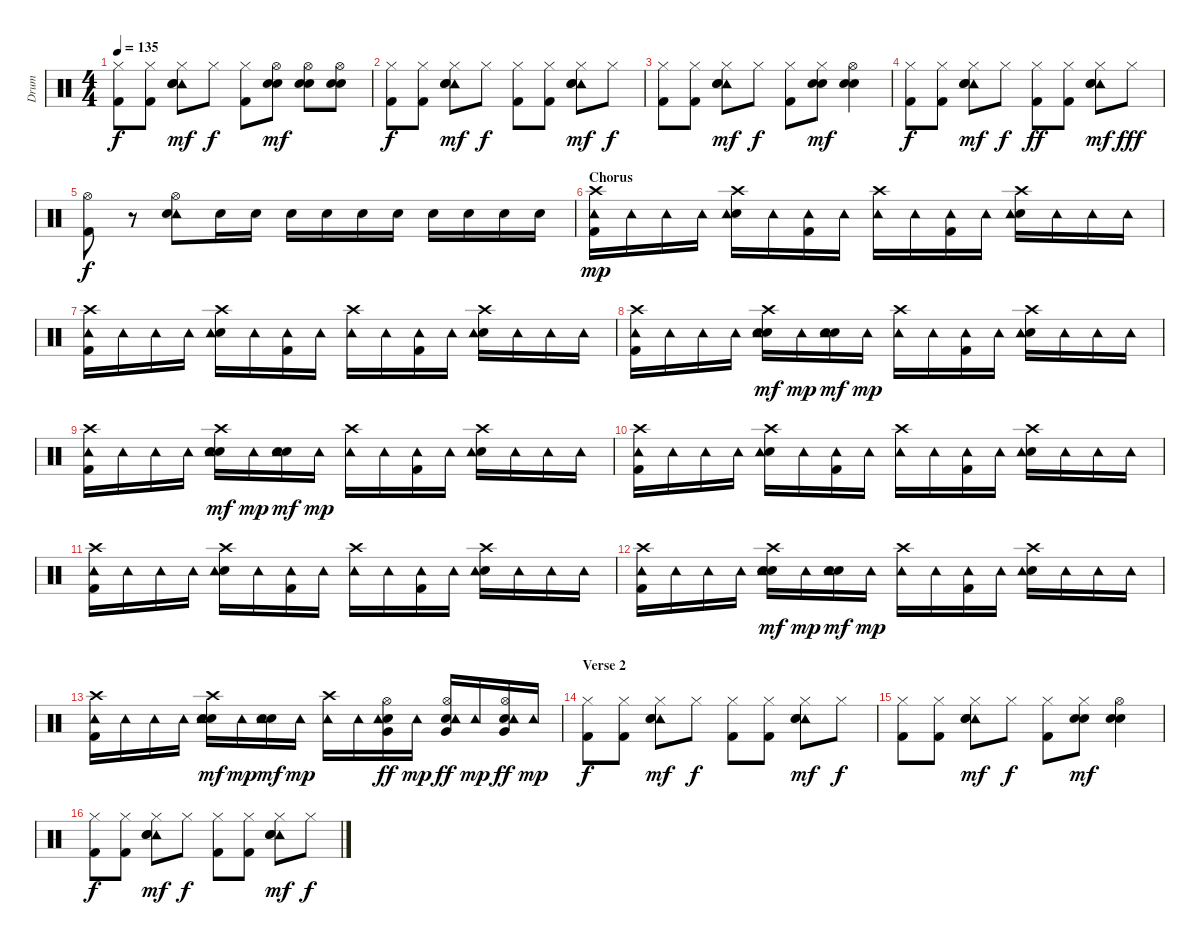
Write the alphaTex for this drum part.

\track ("Drum" "Drum") {instrument percussion}
\staff {score}
\articulation defaults
\ts (4 4)
\tempo 135
\clef neutral
\ks c
("Hi-Hat (closed)" "Kick (hit) 2").8{dy f} ("Hi-Hat (closed)" "Kick (hit) 2").8 ("Hi-Hat (closed)" "Tambourine (hit)" "Electric Snare (hit)" "Hand Clap (hit)").8{dy mf} "Hi-Hat (closed)".8{dy f} ("Hi-Hat (closed)" "Kick (hit) 2").8 ("Hi-Hat (open)" "Electric Snare (hit)" "Hand Clap (hit)").8{dy mf} ("Hi-Hat (open)" "Electric Snare (hit)" "Hand Clap (hit)").8 ("Hi-Hat (open)" "Electric Snare (hit)" "Hand Clap (hit)").8 |
("Hi-Hat (closed)" "Kick (hit) 2").8{dy f} ("Hi-Hat (closed)" "Kick (hit) 2").8 ("Hi-Hat (closed)" "Tambourine (hit)" "Electric Snare (hit)" "Hand Clap (hit)").8{dy mf} "Hi-Hat (closed)".8{dy f} ("Hi-Hat (closed)" "Kick (hit) 2").8 ("Hi-Hat (closed)" "Kick (hit) 2").8 ("Hi-Hat (closed)" "Tambourine (hit)" "Electric Snare (hit)" "Hand Clap (hit)").8{dy mf} "Hi-Hat (closed)".8{dy f} |
("Hi-Hat (closed)" "Kick (hit) 2").8 ("Hi-Hat (closed)" "Kick (hit) 2").8 ("Hi-Hat (closed)" "Tambourine (hit)" "Electric Snare (hit)" "Hand Clap (hit)").8{dy mf} "Hi-Hat (closed)".8{dy f} ("Hi-Hat (closed)" "Kick (hit) 2").8 ("Hi-Hat (closed)" "Electric Snare (hit)" "Hand Clap (hit)").8{dy mf} ("Hi-Hat (open)" "Electric Snare (hit)" "Hand Clap (hit)").4 |
("Hi-Hat (closed)" "Kick (hit) 2").8{dy f} ("Hi-Hat (closed)" "Kick (hit) 2").8 ("Hi-Hat (closed)" "Tambourine (hit)" "Electric Snare (hit)" "Hand Clap (hit)").8{dy mf} "Hi-Hat (closed)".8{dy f} ("Hi-Hat (closed)" "Kick (hit) 2").8{dy ff} ("Hi-Hat (closed)" "Kick (hit) 2").8 ("Hi-Hat (closed)" "Tambourine (hit)" "Electric Snare (hit)" "Hand Clap (hit)").8{dy mf} "Hi-Hat (closed)".8{dy fff} |
("Hi-Hat (open)" "Kick (hit) 2").8{dy f} r.8 ("Hi-Hat (open)" "Tambourine (hit)" "Electric Snare (hit)").8 "Electric Snare (hit)".16 "Electric Snare (hit)".16 "Electric Snare (hit)".16 "Electric Snare (hit)".16 "Electric Snare (hit)".16 "Electric Snare (hit)".16 "Electric Snare (hit)".16 "Electric Snare (hit)".16 "Electric Snare (hit)".16 "Electric Snare (hit)".16 |
\section ("" "Chorus")
("Crash high (hit)" "Tambourine (hit)" "Kick (hit) 2").16{dy mp} "Tambourine (hit)".16 "Tambourine (hit)".16 "Tambourine (hit)".16 ("Crash high (hit)" "Electric Snare (hit)" "Tambourine (hit)").16 "Tambourine (hit)".16 ("Tambourine (hit)" "Kick (hit) 2").16 "Tambourine (hit)".16 ("Crash high (hit)" "Tambourine (hit)").16 "Tambourine (hit)".16 ("Tambourine (hit)" "Kick (hit) 2").16 "Tambourine (hit)".16 ("Crash high (hit)" "Electric Snare (hit)" "Tambourine (hit)").16 "Tambourine (hit)".16 "Tambourine (hit)".16 "Tambourine (hit)".16 |
("Crash high (hit)" "Tambourine (hit)" "Kick (hit) 2").16 "Tambourine (hit)".16 "Tambourine (hit)".16 "Tambourine (hit)".16 ("Crash high (hit)" "Electric Snare (hit)" "Tambourine (hit)").16 "Tambourine (hit)".16 ("Tambourine (hit)" "Kick (hit) 2").16 "Tambourine (hit)".16 ("Crash high (hit)" "Tambourine (hit)").16 "Tambourine (hit)".16 ("Tambourine (hit)" "Kick (hit) 2").16 "Tambourine (hit)".16 ("Crash high (hit)" "Electric Snare (hit)" "Tambourine (hit)").16 "Tambourine (hit)".16 "Tambourine (hit)".16 "Tambourine (hit)".16 |
("Crash high (hit)" "Tambourine (hit)" "Kick (hit) 2").16 "Tambourine (hit)".16 "Tambourine (hit)".16 "Tambourine (hit)".16 ("Crash high (hit)" "Electric Snare (hit)" "Tambourine (hit)" "Hand Clap (hit)").16{dy mf} "Tambourine (hit)".16{dy mp} ("Electric Snare (hit)" "Tambourine (hit)" "Hand Clap (hit)").16{dy mf} "Tambourine (hit)".16{dy mp} ("Crash high (hit)" "Tambourine (hit)").16 "Tambourine (hit)".16 ("Tambourine (hit)" "Kick (hit) 2").16 "Tambourine (hit)".16 ("Crash high (hit)" "Electric Snare (hit)" "Tambourine (hit)").16 "Tambourine (hit)".16 "Tambourine (hit)".16 "Tambourine (hit)".16 |
("Crash high (hit)" "Tambourine (hit)" "Kick (hit) 2").16 "Tambourine (hit)".16 "Tambourine (hit)".16 "Tambourine (hit)".16 ("Crash high (hit)" "Electric Snare (hit)" "Tambourine (hit)" "Hand Clap (hit)").16{dy mf} "Tambourine (hit)".16{dy mp} ("Electric Snare (hit)" "Tambourine (hit)" "Hand Clap (hit)").16{dy mf} "Tambourine (hit)".16{dy mp} ("Crash high (hit)" "Tambourine (hit)").16 "Tambourine (hit)".16 ("Tambourine (hit)" "Kick (hit) 2").16 "Tambourine (hit)".16 ("Crash high (hit)" "Electric Snare (hit)" "Tambourine (hit)").16 "Tambourine (hit)".16 "Tambourine (hit)".16 "Tambourine (hit)".16 |
("Crash high (hit)" "Tambourine (hit)" "Kick (hit) 2").16 "Tambourine (hit)".16 "Tambourine (hit)".16 "Tambourine (hit)".16 ("Crash high (hit)" "Electric Snare (hit)" "Tambourine (hit)").16 "Tambourine (hit)".16 ("Tambourine (hit)" "Kick (hit) 2").16 "Tambourine (hit)".16 ("Crash high (hit)" "Tambourine (hit)").16 "Tambourine (hit)".16 ("Tambourine (hit)" "Kick (hit) 2").16 "Tambourine (hit)".16 ("Crash high (hit)" "Electric Snare (hit)" "Tambourine (hit)").16 "Tambourine (hit)".16 "Tambourine (hit)".16 "Tambourine (hit)".16 |
("Crash high (hit)" "Tambourine (hit)" "Kick (hit) 2").16 "Tambourine (hit)".16 "Tambourine (hit)".16 "Tambourine (hit)".16 ("Crash high (hit)" "Electric Snare (hit)" "Tambourine (hit)").16 "Tambourine (hit)".16 ("Tambourine (hit)" "Kick (hit) 2").16 "Tambourine (hit)".16 ("Crash high (hit)" "Tambourine (hit)").16 "Tambourine (hit)".16 ("Tambourine (hit)" "Kick (hit) 2").16 "Tambourine (hit)".16 ("Crash high (hit)" "Electric Snare (hit)" "Tambourine (hit)").16 "Tambourine (hit)".16 "Tambourine (hit)".16 "Tambourine (hit)".16 |
("Crash high (hit)" "Tambourine (hit)" "Kick (hit) 2").16 "Tambourine (hit)".16 "Tambourine (hit)".16 "Tambourine (hit)".16 ("Crash high (hit)" "Electric Snare (hit)" "Tambourine (hit)" "Hand Clap (hit)").16{dy mf} "Tambourine (hit)".16{dy mp} ("Electric Snare (hit)" "Tambourine (hit)" "Hand Clap (hit)").16{dy mf} "Tambourine (hit)".16{dy mp} ("Crash high (hit)" "Tambourine (hit)").16 "Tambourine (hit)".16 ("Tambourine (hit)" "Kick (hit) 2").16 "Tambourine (hit)".16 ("Crash high (hit)" "Electric Snare (hit)" "Tambourine (hit)").16 "Tambourine (hit)".16 "Tambourine (hit)".16 "Tambourine (hit)".16 |
("Crash high (hit)" "Tambourine (hit)" "Kick (hit) 2").16 "Tambourine (hit)".16 "Tambourine (hit)".16 "Tambourine (hit)".16 ("Crash high (hit)" "Electric Snare (hit)" "Tambourine (hit)" "Hand Clap (hit)").16{dy mf} "Tambourine (hit)".16{dy mp} ("Electric Snare (hit)" "Tambourine (hit)" "Hand Clap (hit)").16{dy mf} "Tambourine (hit)".16{dy mp} ("Crash high (hit)" "Tambourine (hit)").16 "Tambourine (hit)".16 ("Hi-Hat (open)" "Electric Snare (hit)" "Tambourine (hit)" "Very Low Tom (hit)").16{dy ff} "Tambourine (hit)".16{dy mp} ("Hi-Hat (open)" "Electric Snare (hit)" "Tambourine (hit)" "Very Low Tom (hit)").16{dy ff} "Tambourine (hit)".16{dy mp} ("Hi-Hat (open)" "Electric Snare (hit)" "Tambourine (hit)" "Very Low Tom (hit)").16{dy ff} "Tambourine (hit)".16{dy mp} |
\section ("" "Verse 2")
("Hi-Hat (closed)" "Kick (hit) 2").8{dy f} ("Hi-Hat (closed)" "Kick (hit) 2").8 ("Hi-Hat (closed)" "Tambourine (hit)" "Electric Snare (hit)" "Hand Clap (hit)").8{dy mf} "Hi-Hat (closed)".8{dy f} ("Hi-Hat (closed)" "Kick (hit) 2").8 ("Hi-Hat (closed)" "Kick (hit) 2").8 ("Hi-Hat (closed)" "Tambourine (hit)" "Electric Snare (hit)" "Hand Clap (hit)").8{dy mf} "Hi-Hat (closed)".8{dy f} |
("Hi-Hat (closed)" "Kick (hit) 2").8 ("Hi-Hat (closed)" "Kick (hit) 2").8 ("Hi-Hat (closed)" "Tambourine (hit)" "Electric Snare (hit)" "Hand Clap (hit)").8{dy mf} "Hi-Hat (closed)".8{dy f} ("Hi-Hat (closed)" "Kick (hit) 2").8 ("Hi-Hat (closed)" "Electric Snare (hit)" "Hand Clap (hit)").8{dy mf} ("Hi-Hat (open)" "Electric Snare (hit)" "Hand Clap (hit)").4 |
("Hi-Hat (closed)" "Kick (hit) 2").8{dy f} ("Hi-Hat (closed)" "Kick (hit) 2").8 ("Hi-Hat (closed)" "Tambourine (hit)" "Electric Snare (hit)" "Hand Clap (hit)").8{dy mf} "Hi-Hat (closed)".8{dy f} ("Hi-Hat (closed)" "Kick (hit) 2").8 ("Hi-Hat (closed)" "Kick (hit) 2").8 ("Hi-Hat (closed)" "Tambourine (hit)" "Electric Snare (hit)" "Hand Clap (hit)").8{dy mf} "Hi-Hat (closed)".8{dy f}
